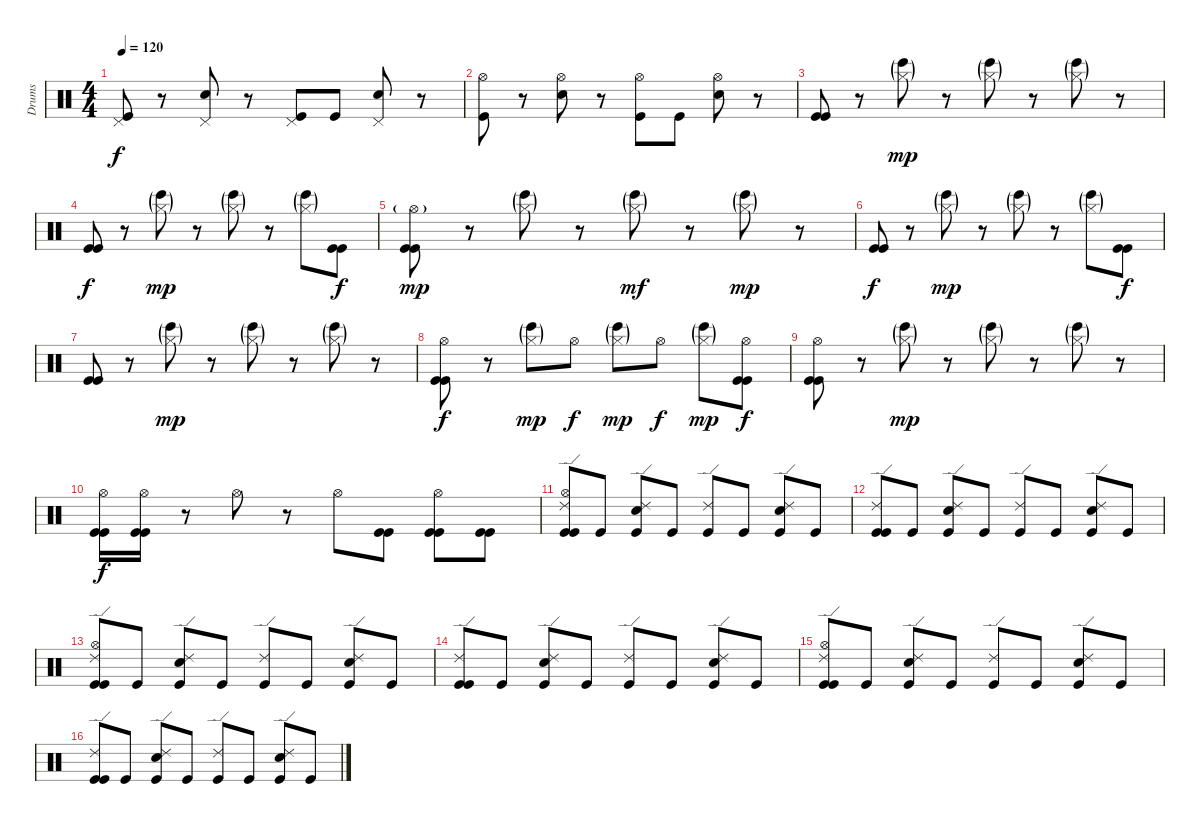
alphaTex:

\track ("Drums" "Drums") {instrument percussion}
\staff {score}
\articulation defaults
\ts (4 4)
\tempo 120
\clef neutral
\ks c
("Pedal Hi-Hat (hit)" "Kick (hit)").8{dy f} r.8 ("Pedal Hi-Hat (hit)" "Snare (hit) 2").8 r.8 ("Pedal Hi-Hat (hit)" "Kick (hit)").8 "Kick (hit)".8 ("Pedal Hi-Hat (hit)" "Snare (hit) 2").8 r.8 |
("Hi-Hat (open)" "Kick (hit)").8 r.8 ("Hi-Hat (open)" "Snare (hit) 2").8 r.8 ("Hi-Hat (open)" "Kick (hit)").8 "Kick (hit)".8 ("Hi-Hat (open)" "Snare (hit) 2").8 r.8 |
("Kick (hit)" "Kick (hit)").8 r.8 ("Hi-Hat (closed)"{g} "Bongo High (hit)"{g}).8{dy mp} r.8 ("Hi-Hat (closed)"{g} "Bongo High (hit)"{g}).8 r.8 ("Hi-Hat (closed)"{g} "Bongo High (hit)"{g}).8 r.8 |
("Kick (hit)" "Kick (hit)").8{dy f} r.8 ("Hi-Hat (closed)"{g} "Bongo High (hit)"{g}).8{dy mp} r.8 ("Hi-Hat (closed)"{g} "Bongo High (hit)"{g}).8 r.8 ("Hi-Hat (closed)"{g} "Bongo High (hit)"{g}).8 ("Kick (hit)" "Kick (hit)").8{dy f} |
("Hi-Hat (open)"{g} "Kick (hit)" "Kick (hit)").8{dy mp} r.8 ("Hi-Hat (closed)"{g} "Bongo High (hit)"{g}).8 r.8 ("Hi-Hat (closed)"{g} "Bongo High (hit)"{g}).8{dy mf} r.8 ("Hi-Hat (closed)"{g} "Bongo High (hit)"{g}).8{dy mp} r.8 |
("Kick (hit)" "Kick (hit)").8{dy f} r.8 ("Hi-Hat (closed)"{g} "Bongo High (hit)"{g}).8{dy mp} r.8 ("Hi-Hat (closed)"{g} "Bongo High (hit)"{g}).8 r.8 ("Hi-Hat (closed)"{g} "Bongo High (hit)"{g}).8 ("Kick (hit)" "Kick (hit)").8{dy f} |
("Kick (hit)" "Kick (hit)").8 r.8 ("Hi-Hat (closed)"{g} "Bongo High (hit)"{g}).8{dy mp} r.8 ("Hi-Hat (closed)"{g} "Bongo High (hit)"{g}).8 r.8 ("Hi-Hat (closed)"{g} "Bongo High (hit)"{g}).8 r.8 |
("Hi-Hat (open)" "Kick (hit)" "Kick (hit)").8{dy f} r.8 ("Hi-Hat (closed)"{g} "Bongo High (hit)"{g}).8{dy mp} "Hi-Hat (open)".8{dy f} ("Hi-Hat (closed)"{g} "Bongo High (hit)"{g}).8{dy mp} "Hi-Hat (open)".8{dy f} ("Hi-Hat (closed)"{g} "Bongo High (hit)"{g}).8{dy mp} ("Hi-Hat (open)" "Kick (hit)" "Kick (hit)").8{dy f} |
("Hi-Hat (open)" "Kick (hit)" "Kick (hit)").8 r.8 ("Hi-Hat (closed)"{g} "Bongo High (hit)"{g}).8{dy mp} r.8 ("Hi-Hat (closed)"{g} "Bongo High (hit)"{g}).8 r.8 ("Hi-Hat (closed)"{g} "Bongo High (hit)"{g}).8 r.8 |
("Hi-Hat (open)" "Kick (hit)" "Kick (hit)").16{dy f} ("Hi-Hat (open)" "Kick (hit)" "Kick (hit)").16 r.8 "Hi-Hat (open)".8 r.8 "Hi-Hat (open)".8 ("Kick (hit)" "Kick (hit)").8 ("Hi-Hat (open)" "Kick (hit)" "Kick (hit)").8 ("Kick (hit)" "Kick (hit)").8 |
("Hi-Hat (open)" "Ride (edge) 2" "Kick (hit)" "Kick (hit)").8 "Kick (hit)".8 ("Ride (edge) 2" "Snare (hit) 2" "Kick (hit)").8 "Kick (hit)".8 ("Ride (edge) 2" "Kick (hit)").8 "Kick (hit)".8 ("Ride (edge) 2" "Snare (hit) 2" "Kick (hit)").8 "Kick (hit)".8 |
("Ride (edge) 2" "Kick (hit)" "Kick (hit)").8 "Kick (hit)".8 ("Ride (edge) 2" "Snare (hit) 2" "Kick (hit)").8 "Kick (hit)".8 ("Ride (edge) 2" "Kick (hit)").8 "Kick (hit)".8 ("Ride (edge) 2" "Snare (hit) 2" "Kick (hit)").8 "Kick (hit)".8 |
("Hi-Hat (open)" "Ride (edge) 2" "Kick (hit)" "Kick (hit)").8 "Kick (hit)".8 ("Ride (edge) 2" "Snare (hit) 2" "Kick (hit)").8 "Kick (hit)".8 ("Ride (edge) 2" "Kick (hit)").8 "Kick (hit)".8 ("Ride (edge) 2" "Snare (hit) 2" "Kick (hit)").8 "Kick (hit)".8 |
("Ride (edge) 2" "Kick (hit)" "Kick (hit)").8 "Kick (hit)".8 ("Ride (edge) 2" "Snare (hit) 2" "Kick (hit)").8 "Kick (hit)".8 ("Ride (edge) 2" "Kick (hit)").8 "Kick (hit)".8 ("Ride (edge) 2" "Snare (hit) 2" "Kick (hit)").8 "Kick (hit)".8 |
("Hi-Hat (open)" "Ride (edge) 2" "Kick (hit)" "Kick (hit)").8 "Kick (hit)".8 ("Ride (edge) 2" "Snare (hit) 2" "Kick (hit)").8 "Kick (hit)".8 ("Ride (edge) 2" "Kick (hit)").8 "Kick (hit)".8 ("Ride (edge) 2" "Snare (hit) 2" "Kick (hit)").8 "Kick (hit)".8 |
("Ride (edge) 2" "Kick (hit)" "Kick (hit)").8 "Kick (hit)".8 ("Ride (edge) 2" "Snare (hit) 2" "Kick (hit)").8 "Kick (hit)".8 ("Ride (edge) 2" "Kick (hit)").8 "Kick (hit)".8 ("Ride (edge) 2" "Snare (hit) 2" "Kick (hit)").8 "Kick (hit)".8
